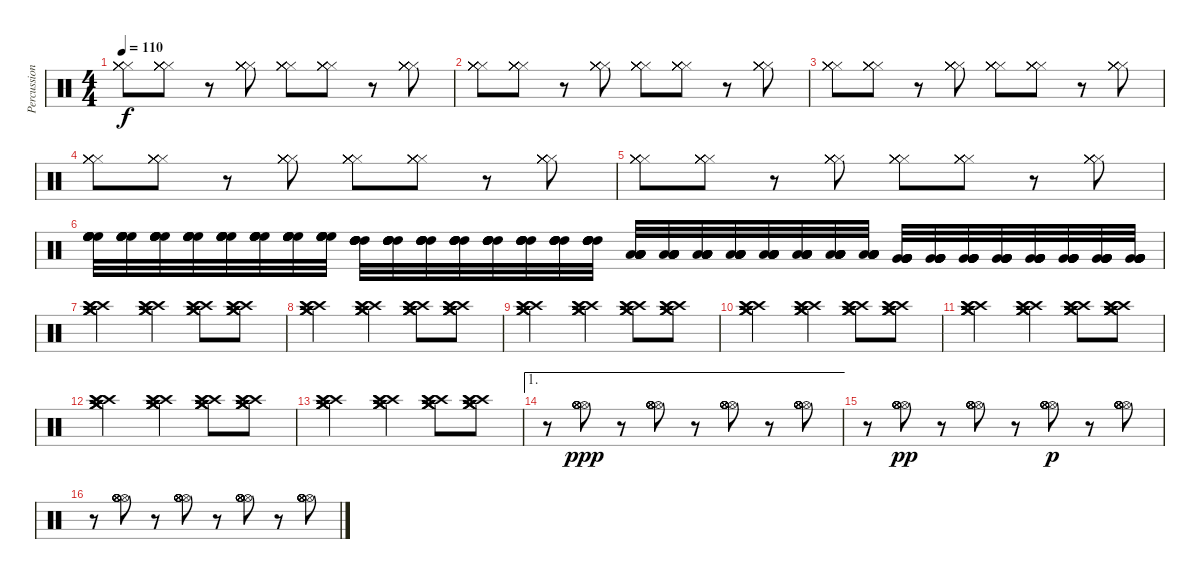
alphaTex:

\track ("Percussion 2" "Percussion") {instrument percussion}
\staff {score}
\articulation defaults
\ts (4 4)
\tempo 110
\clef neutral
\ks c
("Hi-Hat (closed)" "Hi-Hat (closed)" "Hi-Hat (closed)" "Hi-Hat (closed)" "Hi-Hat (closed)" "Hi-Hat (closed)").8{dy f} ("Hi-Hat (closed)" "Hi-Hat (closed)" "Hi-Hat (closed)" "Hi-Hat (closed)" "Hi-Hat (closed)" "Hi-Hat (closed)").8 r.8 ("Hi-Hat (closed)" "Hi-Hat (closed)" "Hi-Hat (closed)" "Hi-Hat (closed)" "Hi-Hat (closed)" "Hi-Hat (closed)").8 ("Hi-Hat (closed)" "Hi-Hat (closed)" "Hi-Hat (closed)" "Hi-Hat (closed)" "Hi-Hat (closed)" "Hi-Hat (closed)").8 ("Hi-Hat (closed)" "Hi-Hat (closed)" "Hi-Hat (closed)" "Hi-Hat (closed)" "Hi-Hat (closed)" "Hi-Hat (closed)").8 r.8 ("Hi-Hat (closed)" "Hi-Hat (closed)" "Hi-Hat (closed)" "Hi-Hat (closed)" "Hi-Hat (closed)" "Hi-Hat (closed)").8 |
("Hi-Hat (closed)" "Hi-Hat (closed)" "Hi-Hat (closed)" "Hi-Hat (closed)" "Hi-Hat (closed)" "Hi-Hat (closed)").8 ("Hi-Hat (closed)" "Hi-Hat (closed)" "Hi-Hat (closed)" "Hi-Hat (closed)" "Hi-Hat (closed)" "Hi-Hat (closed)").8 r.8 ("Hi-Hat (closed)" "Hi-Hat (closed)" "Hi-Hat (closed)" "Hi-Hat (closed)" "Hi-Hat (closed)" "Hi-Hat (closed)").8 ("Hi-Hat (closed)" "Hi-Hat (closed)" "Hi-Hat (closed)" "Hi-Hat (closed)" "Hi-Hat (closed)" "Hi-Hat (closed)").8 ("Hi-Hat (closed)" "Hi-Hat (closed)" "Hi-Hat (closed)" "Hi-Hat (closed)" "Hi-Hat (closed)" "Hi-Hat (closed)").8 r.8 ("Hi-Hat (closed)" "Hi-Hat (closed)" "Hi-Hat (closed)" "Hi-Hat (closed)" "Hi-Hat (closed)" "Hi-Hat (closed)").8 |
("Hi-Hat (closed)" "Hi-Hat (closed)" "Hi-Hat (closed)" "Hi-Hat (closed)" "Hi-Hat (closed)" "Hi-Hat (closed)").8 ("Hi-Hat (closed)" "Hi-Hat (closed)" "Hi-Hat (closed)" "Hi-Hat (closed)" "Hi-Hat (closed)" "Hi-Hat (closed)").8 r.8 ("Hi-Hat (closed)" "Hi-Hat (closed)" "Hi-Hat (closed)" "Hi-Hat (closed)" "Hi-Hat (closed)" "Hi-Hat (closed)").8 ("Hi-Hat (closed)" "Hi-Hat (closed)" "Hi-Hat (closed)" "Hi-Hat (closed)" "Hi-Hat (closed)" "Hi-Hat (closed)").8 ("Hi-Hat (closed)" "Hi-Hat (closed)" "Hi-Hat (closed)" "Hi-Hat (closed)" "Hi-Hat (closed)" "Hi-Hat (closed)").8 r.8 ("Hi-Hat (closed)" "Hi-Hat (closed)" "Hi-Hat (closed)" "Hi-Hat (closed)" "Hi-Hat (closed)" "Hi-Hat (closed)").8 |
("Hi-Hat (closed)" "Hi-Hat (closed)" "Hi-Hat (closed)" "Hi-Hat (closed)" "Hi-Hat (closed)" "Hi-Hat (closed)").8 ("Hi-Hat (closed)" "Hi-Hat (closed)" "Hi-Hat (closed)" "Hi-Hat (closed)" "Hi-Hat (closed)" "Hi-Hat (closed)").8 r.8 ("Hi-Hat (closed)" "Hi-Hat (closed)" "Hi-Hat (closed)" "Hi-Hat (closed)" "Hi-Hat (closed)" "Hi-Hat (closed)").8 ("Hi-Hat (closed)" "Hi-Hat (closed)" "Hi-Hat (closed)" "Hi-Hat (closed)" "Hi-Hat (closed)" "Hi-Hat (closed)").8 ("Hi-Hat (closed)" "Hi-Hat (closed)" "Hi-Hat (closed)" "Hi-Hat (closed)" "Hi-Hat (closed)" "Hi-Hat (closed)").8 r.8 ("Hi-Hat (closed)" "Hi-Hat (closed)" "Hi-Hat (closed)" "Hi-Hat (closed)" "Hi-Hat (closed)" "Hi-Hat (closed)").8 |
("Hi-Hat (closed)" "Hi-Hat (closed)" "Hi-Hat (closed)" "Hi-Hat (closed)" "Hi-Hat (closed)" "Hi-Hat (closed)").8 ("Hi-Hat (closed)" "Hi-Hat (closed)" "Hi-Hat (closed)" "Hi-Hat (closed)" "Hi-Hat (closed)" "Hi-Hat (closed)").8 r.8 ("Hi-Hat (closed)" "Hi-Hat (closed)" "Hi-Hat (closed)" "Hi-Hat (closed)" "Hi-Hat (closed)" "Hi-Hat (closed)").8 ("Hi-Hat (closed)" "Hi-Hat (closed)" "Hi-Hat (closed)" "Hi-Hat (closed)" "Hi-Hat (closed)" "Hi-Hat (closed)").8 ("Hi-Hat (closed)" "Hi-Hat (closed)" "Hi-Hat (closed)" "Hi-Hat (closed)" "Hi-Hat (closed)" "Hi-Hat (closed)").8 r.8 ("Hi-Hat (closed)" "Hi-Hat (closed)" "Hi-Hat (closed)" "Hi-Hat (closed)" "Hi-Hat (closed)" "Hi-Hat (closed)").8 |
("High Floor Tom (hit)" "High Floor Tom (hit)" "High Floor Tom (hit)" "High Floor Tom (hit)" "High Floor Tom (hit)" "High Floor Tom (hit)").32 ("High Floor Tom (hit)" "High Floor Tom (hit)" "High Floor Tom (hit)" "High Floor Tom (hit)" "High Floor Tom (hit)" "High Floor Tom (hit)").32 ("High Floor Tom (hit)" "High Floor Tom (hit)" "High Floor Tom (hit)" "High Floor Tom (hit)" "High Floor Tom (hit)" "High Floor Tom (hit)").32 ("High Floor Tom (hit)" "High Floor Tom (hit)" "High Floor Tom (hit)" "High Floor Tom (hit)" "High Floor Tom (hit)" "High Floor Tom (hit)").32 ("High Floor Tom (hit)" "High Floor Tom (hit)" "High Floor Tom (hit)" "High Floor Tom (hit)" "High Floor Tom (hit)" "High Floor Tom (hit)").32 ("High Floor Tom (hit)" "High Floor Tom (hit)" "High Floor Tom (hit)" "High Floor Tom (hit)" "High Floor Tom (hit)" "High Floor Tom (hit)").32 ("High Floor Tom (hit)" "High Floor Tom (hit)" "High Floor Tom (hit)" "High Floor Tom (hit)" "High Floor Tom (hit)" "High Floor Tom (hit)").32 ("High Floor Tom (hit)" "High Floor Tom (hit)" "High Floor Tom (hit)" "High Floor Tom (hit)" "High Floor Tom (hit)" "High Floor Tom (hit)").32 ("High Tom (hit)" "High Tom (hit)" "High Tom (hit)" "High Tom (hit)" "High Tom (hit)" "High Tom (hit)").32 ("High Tom (hit)" "High Tom (hit)" "High Tom (hit)" "High Tom (hit)" "High Tom (hit)" "High Tom (hit)").32 ("High Tom (hit)" "High Tom (hit)" "High Tom (hit)" "High Tom (hit)" "High Tom (hit)" "High Tom (hit)").32 ("High Tom (hit)" "High Tom (hit)" "High Tom (hit)" "High Tom (hit)" "High Tom (hit)" "High Tom (hit)").32 ("High Tom (hit)" "High Tom (hit)" "High Tom (hit)" "High Tom (hit)" "High Tom (hit)" "High Tom (hit)").32 ("High Tom (hit)" "High Tom (hit)" "High Tom (hit)" "High Tom (hit)" "High Tom (hit)" "High Tom (hit)").32 ("High Tom (hit)" "High Tom (hit)" "High Tom (hit)" "High Tom (hit)" "High Tom (hit)" "High Tom (hit)").32 ("High Tom (hit)" "High Tom (hit)" "High Tom (hit)" "High Tom (hit)" "High Tom (hit)" "High Tom (hit)").32 ("Low Tom (hit)" "Low Tom (hit)" "Low Tom (hit)" "Low Tom (hit)" "Low Tom (hit)" "Low Tom (hit)").32 ("Low Tom (hit)" "Low Tom (hit)" "Low Tom (hit)" "Low Tom (hit)" "Low Tom (hit)" "Low Tom (hit)").32 ("Low Tom (hit)" "Low Tom (hit)" "Low Tom (hit)" "Low Tom (hit)" "Low Tom (hit)" "Low Tom (hit)").32 ("Low Tom (hit)" "Low Tom (hit)" "Low Tom (hit)" "Low Tom (hit)" "Low Tom (hit)" "Low Tom (hit)").32 ("Low Tom (hit)" "Low Tom (hit)" "Low Tom (hit)" "Low Tom (hit)" "Low Tom (hit)" "Low Tom (hit)").32 ("Low Tom (hit)" "Low Tom (hit)" "Low Tom (hit)" "Low Tom (hit)" "Low Tom (hit)" "Low Tom (hit)").32 ("Low Tom (hit)" "Low Tom (hit)" "Low Tom (hit)" "Low Tom (hit)" "Low Tom (hit)" "Low Tom (hit)").32 ("Low Tom (hit)" "Low Tom (hit)" "Low Tom (hit)" "Low Tom (hit)" "Low Tom (hit)" "Low Tom (hit)").32 ("Very Low Tom (hit)" "Very Low Tom (hit)" "Very Low Tom (hit)" "Very Low Tom (hit)" "Very Low Tom (hit)" "Very Low Tom (hit)").32 ("Very Low Tom (hit)" "Very Low Tom (hit)" "Very Low Tom (hit)" "Very Low Tom (hit)" "Very Low Tom (hit)" "Very Low Tom (hit)").32 ("Very Low Tom (hit)" "Very Low Tom (hit)" "Very Low Tom (hit)" "Very Low Tom (hit)" "Very Low Tom (hit)" "Very Low Tom (hit)").32 ("Very Low Tom (hit)" "Very Low Tom (hit)" "Very Low Tom (hit)" "Very Low Tom (hit)" "Very Low Tom (hit)" "Very Low Tom (hit)").32 ("Very Low Tom (hit)" "Very Low Tom (hit)" "Very Low Tom (hit)" "Very Low Tom (hit)" "Very Low Tom (hit)" "Very Low Tom (hit)").32 ("Very Low Tom (hit)" "Very Low Tom (hit)" "Very Low Tom (hit)" "Very Low Tom (hit)" "Very Low Tom (hit)" "Very Low Tom (hit)").32 ("Very Low Tom (hit)" "Very Low Tom (hit)" "Very Low Tom (hit)" "Very Low Tom (hit)" "Very Low Tom (hit)" "Very Low Tom (hit)").32 ("Very Low Tom (hit)" "Very Low Tom (hit)" "Very Low Tom (hit)" "Very Low Tom (hit)" "Very Low Tom (hit)" "Very Low Tom (hit)").32 |
("Crash medium (hit)" "Crash medium (hit)" "Crash medium (hit)" "Crash high (hit)" "Crash high (hit)" "Crash high (hit)").2 ("Crash medium (hit)" "Crash medium (hit)" "Crash medium (hit)" "Crash high (hit)" "Crash high (hit)" "Crash high (hit)").4 ("Crash medium (hit)" "Crash medium (hit)" "Crash medium (hit)" "Crash high (hit)" "Crash high (hit)" "Crash high (hit)").8 ("Crash medium (hit)" "Crash medium (hit)" "Crash medium (hit)" "Crash high (hit)" "Crash high (hit)" "Crash high (hit)").8 |
("Crash medium (hit)" "Crash medium (hit)" "Crash medium (hit)" "Crash high (hit)" "Crash high (hit)" "Crash high (hit)").2 ("Crash medium (hit)" "Crash medium (hit)" "Crash medium (hit)" "Crash high (hit)" "Crash high (hit)" "Crash high (hit)").4 ("Crash medium (hit)" "Crash medium (hit)" "Crash medium (hit)" "Crash high (hit)" "Crash high (hit)" "Crash high (hit)").8 ("Crash medium (hit)" "Crash medium (hit)" "Crash medium (hit)" "Crash high (hit)" "Crash high (hit)" "Crash high (hit)").8 |
("Crash medium (hit)" "Crash medium (hit)" "Crash medium (hit)" "Crash high (hit)" "Crash high (hit)" "Crash high (hit)").2 ("Crash medium (hit)" "Crash medium (hit)" "Crash medium (hit)" "Crash high (hit)" "Crash high (hit)" "Crash high (hit)").4 ("Crash medium (hit)" "Crash medium (hit)" "Crash medium (hit)" "Crash high (hit)" "Crash high (hit)" "Crash high (hit)").8 ("Crash medium (hit)" "Crash medium (hit)" "Crash medium (hit)" "Crash high (hit)" "Crash high (hit)" "Crash high (hit)").8 |
("Crash medium (hit)" "Crash medium (hit)" "Crash medium (hit)" "Crash high (hit)" "Crash high (hit)" "Crash high (hit)").2 ("Crash medium (hit)" "Crash medium (hit)" "Crash medium (hit)" "Crash high (hit)" "Crash high (hit)" "Crash high (hit)").4 ("Crash medium (hit)" "Crash medium (hit)" "Crash medium (hit)" "Crash high (hit)" "Crash high (hit)" "Crash high (hit)").8 ("Crash medium (hit)" "Crash medium (hit)" "Crash medium (hit)" "Crash high (hit)" "Crash high (hit)" "Crash high (hit)").8 |
("Crash medium (hit)" "Crash medium (hit)" "Crash medium (hit)" "Crash high (hit)" "Crash high (hit)" "Crash high (hit)").2 ("Crash medium (hit)" "Crash medium (hit)" "Crash medium (hit)" "Crash high (hit)" "Crash high (hit)" "Crash high (hit)").4 ("Crash medium (hit)" "Crash medium (hit)" "Crash medium (hit)" "Crash high (hit)" "Crash high (hit)" "Crash high (hit)").8 ("Crash medium (hit)" "Crash medium (hit)" "Crash medium (hit)" "Crash high (hit)" "Crash high (hit)" "Crash high (hit)").8 |
("Crash medium (hit)" "Crash medium (hit)" "Crash medium (hit)" "Crash high (hit)" "Crash high (hit)" "Crash high (hit)").2 ("Crash medium (hit)" "Crash medium (hit)" "Crash medium (hit)" "Crash high (hit)" "Crash high (hit)" "Crash high (hit)").4 ("Crash medium (hit)" "Crash medium (hit)" "Crash medium (hit)" "Crash high (hit)" "Crash high (hit)" "Crash high (hit)").8 ("Crash medium (hit)" "Crash medium (hit)" "Crash medium (hit)" "Crash high (hit)" "Crash high (hit)" "Crash high (hit)").8 |
("Crash medium (hit)" "Crash medium (hit)" "Crash medium (hit)" "Crash high (hit)" "Crash high (hit)" "Crash high (hit)").2 ("Crash medium (hit)" "Crash medium (hit)" "Crash medium (hit)" "Crash high (hit)" "Crash high (hit)" "Crash high (hit)").4 ("Crash medium (hit)" "Crash medium (hit)" "Crash medium (hit)" "Crash high (hit)" "Crash high (hit)" "Crash high (hit)").8 ("Crash medium (hit)" "Crash medium (hit)" "Crash medium (hit)" "Crash high (hit)" "Crash high (hit)" "Crash high (hit)").8 |
\ae 1
r.8 ("Hi-Hat (open)" "Hi-Hat (open)" "Hi-Hat (open)" "Hi-Hat (open)" "Hi-Hat (open)" "Hi-Hat (open)").8{dy ppp} r.8 ("Hi-Hat (open)" "Hi-Hat (open)" "Hi-Hat (open)" "Hi-Hat (open)" "Hi-Hat (open)" "Hi-Hat (open)").8 r.8 ("Hi-Hat (open)" "Hi-Hat (open)" "Hi-Hat (open)" "Hi-Hat (open)" "Hi-Hat (open)" "Hi-Hat (open)").8 r.8 ("Hi-Hat (open)" "Hi-Hat (open)" "Hi-Hat (open)" "Hi-Hat (open)" "Hi-Hat (open)" "Hi-Hat (open)").8 |
r.8 ("Hi-Hat (open)" "Hi-Hat (open)" "Hi-Hat (open)" "Hi-Hat (open)" "Hi-Hat (open)" "Hi-Hat (open)").8{dy pp} r.8 ("Hi-Hat (open)" "Hi-Hat (open)" "Hi-Hat (open)" "Hi-Hat (open)" "Hi-Hat (open)" "Hi-Hat (open)").8 r.8 ("Hi-Hat (open)" "Hi-Hat (open)" "Hi-Hat (open)" "Hi-Hat (open)" "Hi-Hat (open)" "Hi-Hat (open)").8{dy p} r.8 ("Hi-Hat (open)" "Hi-Hat (open)" "Hi-Hat (open)" "Hi-Hat (open)" "Hi-Hat (open)" "Hi-Hat (open)").8 |
r.8 ("Hi-Hat (open)" "Hi-Hat (open)" "Hi-Hat (open)" "Hi-Hat (open)" "Hi-Hat (open)" "Hi-Hat (open)").8 r.8 ("Hi-Hat (open)" "Hi-Hat (open)" "Hi-Hat (open)" "Hi-Hat (open)" "Hi-Hat (open)" "Hi-Hat (open)").8 r.8 ("Hi-Hat (open)" "Hi-Hat (open)" "Hi-Hat (open)" "Hi-Hat (open)" "Hi-Hat (open)" "Hi-Hat (open)").8 r.8 ("Hi-Hat (open)" "Hi-Hat (open)" "Hi-Hat (open)" "Hi-Hat (open)" "Hi-Hat (open)" "Hi-Hat (open)").8
